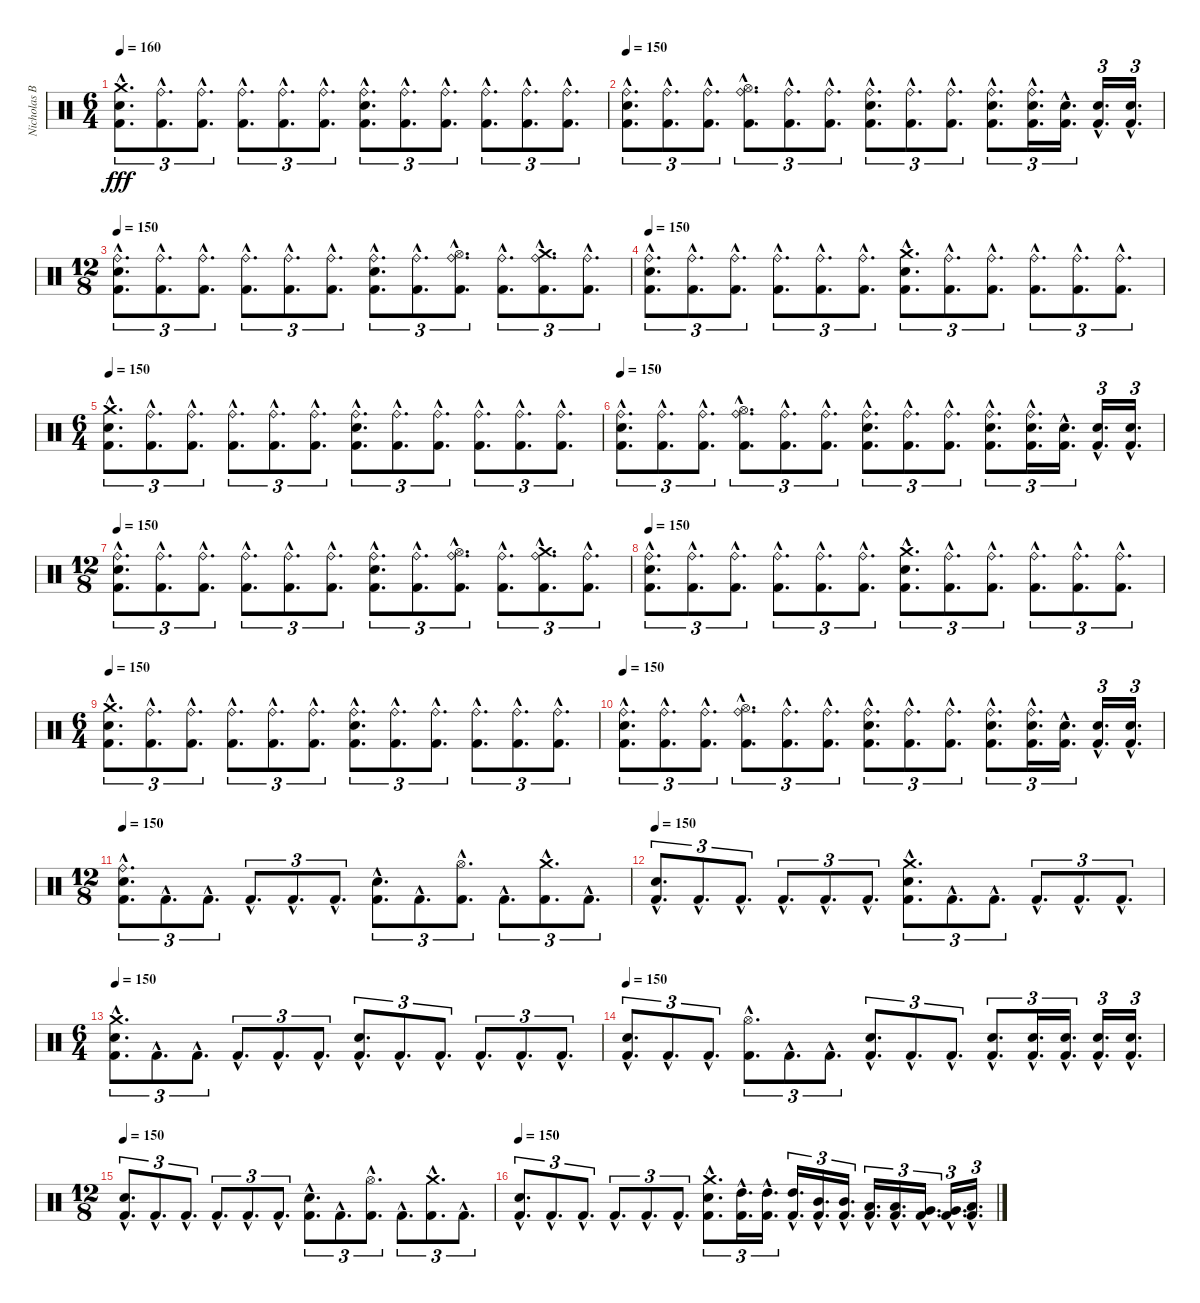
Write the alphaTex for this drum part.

\track ("Nicholas Barker - (Drums And Percussion)" "Nicholas B") {instrument percussion}
\staff {score}
\articulation defaults
\ts (6 4)
\tempo 150
\tempo 160
\clef neutral
\ks c
("Crash medium (hit)"{hac} "Snare (hit) 2"{hac} "Kick (hit) 2"{hac}).8{d tu (3 2) dy fff} ("Ride (bell)"{hac} "Kick (hit) 2"{hac}).8{d tu (3 2)} ("Ride (bell)"{hac} "Kick (hit) 2"{hac}).8{d tu (3 2)} ("Ride (bell)"{hac} "Kick (hit) 2"{hac}).8{d tu (3 2)} ("Ride (bell)"{hac} "Kick (hit) 2"{hac}).8{d tu (3 2)} ("Ride (bell)"{hac} "Kick (hit) 2"{hac}).8{d tu (3 2)} ("Ride (bell)"{hac} "Snare (hit) 2"{hac} "Kick (hit) 2"{hac}).8{d tu (3 2)} ("Ride (bell)"{hac} "Kick (hit) 2"{hac}).8{d tu (3 2)} ("Ride (bell)"{hac} "Kick (hit) 2"{hac}).8{d tu (3 2)} ("Ride (bell)"{hac} "Kick (hit) 2"{hac}).8{d tu (3 2)} ("Ride (bell)"{hac} "Kick (hit) 2"{hac}).8{d tu (3 2)} ("Ride (bell)"{hac} "Kick (hit) 2"{hac}).8{d tu (3 2)} |
\tempo 150
("Ride (bell)"{hac} "Snare (hit) 2"{hac} "Kick (hit) 2"{hac}).8{d tu (3 2)} ("Ride (bell)"{hac} "Kick (hit) 2"{hac}).8{d tu (3 2)} ("Ride (bell)"{hac} "Kick (hit) 2"{hac}).8{d tu (3 2)} ("Ride (bell)"{hac} "Hi-Hat (open)"{hac} "Kick (hit) 2"{hac}).8{d tu (3 2)} ("Ride (bell)"{hac} "Kick (hit) 2"{hac}).8{d tu (3 2)} ("Ride (bell)"{hac} "Kick (hit) 2"{hac}).8{d tu (3 2)} ("Ride (bell)"{hac} "Snare (hit) 2"{hac} "Kick (hit) 2"{hac}).8{d tu (3 2)} ("Ride (bell)"{hac} "Kick (hit) 2"{hac}).8{d tu (3 2)} ("Ride (bell)"{hac} "Kick (hit) 2"{hac}).8{d tu (3 2)} ("Ride (bell)"{hac} "Snare (hit) 2"{hac} "Kick (hit) 2"{hac}).8{d tu (3 2)} ("Ride (bell)"{hac} "Snare (hit) 2"{hac} "Kick (hit) 2"{hac}).16{d tu (3 2)} ("Snare (hit) 2"{hac} "Kick (hit) 2"{hac}).16{d tu (3 2)} ("Snare (hit) 2"{hac} "Kick (hit) 2"{hac}).16{d tu (3 2)} ("Snare (hit) 2"{hac} "Kick (hit) 2"{hac}).16{d tu (3 2)} |
\ts (12 8)
\tempo 150
("Ride (bell)"{hac} "Snare (hit) 2"{hac} "Kick (hit) 2"{hac}).8{d tu (3 2)} ("Ride (bell)"{hac} "Kick (hit) 2"{hac}).8{d tu (3 2)} ("Ride (bell)"{hac} "Kick (hit) 2"{hac}).8{d tu (3 2)} ("Ride (bell)"{hac} "Kick (hit) 2"{hac}).8{d tu (3 2)} ("Ride (bell)"{hac} "Kick (hit) 2"{hac}).8{d tu (3 2)} ("Ride (bell)"{hac} "Kick (hit) 2"{hac}).8{d tu (3 2)} ("Ride (bell)"{hac} "Snare (hit) 2"{hac} "Kick (hit) 2"{hac}).8{d tu (3 2)} ("Ride (bell)"{hac} "Kick (hit) 2"{hac}).8{d tu (3 2)} ("Ride (bell)"{hac} "Hi-Hat (open)"{hac} "Kick (hit) 2"{hac}).8{d tu (3 2)} ("Ride (bell)"{hac} "Kick (hit) 2"{hac}).8{d tu (3 2)} ("Ride (bell)"{hac} "Crash medium (hit)"{hac} "Kick (hit) 2"{hac}).8{d tu (3 2)} ("Ride (bell)"{hac} "Kick (hit) 2"{hac}).8{d tu (3 2)} |
\tempo 150
("Ride (bell)"{hac} "Snare (hit) 2"{hac} "Kick (hit) 2"{hac}).8{d tu (3 2)} ("Ride (bell)"{hac} "Kick (hit) 2"{hac}).8{d tu (3 2)} ("Ride (bell)"{hac} "Kick (hit) 2"{hac}).8{d tu (3 2)} ("Ride (bell)"{hac} "Kick (hit) 2"{hac}).8{d tu (3 2)} ("Ride (bell)"{hac} "Kick (hit) 2"{hac}).8{d tu (3 2)} ("Ride (bell)"{hac} "Kick (hit) 2"{hac}).8{d tu (3 2)} ("Crash medium (hit)"{hac} "Snare (hit) 2"{hac} "Kick (hit) 2"{hac}).8{d tu (3 2)} ("Ride (bell)"{hac} "Kick (hit) 2"{hac}).8{d tu (3 2)} ("Ride (bell)"{hac} "Kick (hit) 2"{hac}).8{d tu (3 2)} ("Ride (bell)"{hac} "Kick (hit) 2"{hac}).8{d tu (3 2)} ("Ride (bell)"{hac} "Kick (hit) 2"{hac}).8{d tu (3 2)} ("Ride (bell)"{hac} "Kick (hit) 2"{hac}).8{d tu (3 2)} |
\ts (6 4)
\tempo 150
("Crash medium (hit)"{hac} "Snare (hit) 2"{hac} "Kick (hit) 2"{hac}).8{d tu (3 2)} ("Ride (bell)"{hac} "Kick (hit) 2"{hac}).8{d tu (3 2)} ("Ride (bell)"{hac} "Kick (hit) 2"{hac}).8{d tu (3 2)} ("Ride (bell)"{hac} "Kick (hit) 2"{hac}).8{d tu (3 2)} ("Ride (bell)"{hac} "Kick (hit) 2"{hac}).8{d tu (3 2)} ("Ride (bell)"{hac} "Kick (hit) 2"{hac}).8{d tu (3 2)} ("Ride (bell)"{hac} "Snare (hit) 2"{hac} "Kick (hit) 2"{hac}).8{d tu (3 2)} ("Ride (bell)"{hac} "Kick (hit) 2"{hac}).8{d tu (3 2)} ("Ride (bell)"{hac} "Kick (hit) 2"{hac}).8{d tu (3 2)} ("Ride (bell)"{hac} "Kick (hit) 2"{hac}).8{d tu (3 2)} ("Ride (bell)"{hac} "Kick (hit) 2"{hac}).8{d tu (3 2)} ("Ride (bell)"{hac} "Kick (hit) 2"{hac}).8{d tu (3 2)} |
\tempo 150
("Ride (bell)"{hac} "Snare (hit) 2"{hac} "Kick (hit) 2"{hac}).8{d tu (3 2)} ("Ride (bell)"{hac} "Kick (hit) 2"{hac}).8{d tu (3 2)} ("Ride (bell)"{hac} "Kick (hit) 2"{hac}).8{d tu (3 2)} ("Ride (bell)"{hac} "Hi-Hat (open)"{hac} "Kick (hit) 2"{hac}).8{d tu (3 2)} ("Ride (bell)"{hac} "Kick (hit) 2"{hac}).8{d tu (3 2)} ("Ride (bell)"{hac} "Kick (hit) 2"{hac}).8{d tu (3 2)} ("Ride (bell)"{hac} "Snare (hit) 2"{hac} "Kick (hit) 2"{hac}).8{d tu (3 2)} ("Ride (bell)"{hac} "Kick (hit) 2"{hac}).8{d tu (3 2)} ("Ride (bell)"{hac} "Kick (hit) 2"{hac}).8{d tu (3 2)} ("Ride (bell)"{hac} "Snare (hit) 2"{hac} "Kick (hit) 2"{hac}).8{d tu (3 2)} ("Ride (bell)"{hac} "Snare (hit) 2"{hac} "Kick (hit) 2"{hac}).16{d tu (3 2)} ("Snare (hit) 2"{hac} "Kick (hit) 2"{hac}).16{d tu (3 2)} ("Snare (hit) 2"{hac} "Kick (hit) 2"{hac}).16{d tu (3 2)} ("Snare (hit) 2"{hac} "Kick (hit) 2"{hac}).16{d tu (3 2)} |
\ts (12 8)
\tempo 150
("Ride (bell)"{hac} "Snare (hit) 2"{hac} "Kick (hit) 2"{hac}).8{d tu (3 2)} ("Ride (bell)"{hac} "Kick (hit) 2"{hac}).8{d tu (3 2)} ("Ride (bell)"{hac} "Kick (hit) 2"{hac}).8{d tu (3 2)} ("Ride (bell)"{hac} "Kick (hit) 2"{hac}).8{d tu (3 2)} ("Ride (bell)"{hac} "Kick (hit) 2"{hac}).8{d tu (3 2)} ("Ride (bell)"{hac} "Kick (hit) 2"{hac}).8{d tu (3 2)} ("Ride (bell)"{hac} "Snare (hit) 2"{hac} "Kick (hit) 2"{hac}).8{d tu (3 2)} ("Ride (bell)"{hac} "Kick (hit) 2"{hac}).8{d tu (3 2)} ("Ride (bell)"{hac} "Hi-Hat (open)"{hac} "Kick (hit) 2"{hac}).8{d tu (3 2)} ("Ride (bell)"{hac} "Kick (hit) 2"{hac}).8{d tu (3 2)} ("Ride (bell)"{hac} "Crash medium (hit)"{hac} "Kick (hit) 2"{hac}).8{d tu (3 2)} ("Ride (bell)"{hac} "Kick (hit) 2"{hac}).8{d tu (3 2)} |
\tempo 150
("Ride (bell)"{hac} "Snare (hit) 2"{hac} "Kick (hit) 2"{hac}).8{d tu (3 2)} ("Ride (bell)"{hac} "Kick (hit) 2"{hac}).8{d tu (3 2)} ("Ride (bell)"{hac} "Kick (hit) 2"{hac}).8{d tu (3 2)} ("Ride (bell)"{hac} "Kick (hit) 2"{hac}).8{d tu (3 2)} ("Ride (bell)"{hac} "Kick (hit) 2"{hac}).8{d tu (3 2)} ("Ride (bell)"{hac} "Kick (hit) 2"{hac}).8{d tu (3 2)} ("Crash medium (hit)"{hac} "Snare (hit) 2"{hac} "Kick (hit) 2"{hac}).8{d tu (3 2)} ("Ride (bell)"{hac} "Kick (hit) 2"{hac}).8{d tu (3 2)} ("Ride (bell)"{hac} "Kick (hit) 2"{hac}).8{d tu (3 2)} ("Ride (bell)"{hac} "Kick (hit) 2"{hac}).8{d tu (3 2)} ("Ride (bell)"{hac} "Kick (hit) 2"{hac}).8{d tu (3 2)} ("Ride (bell)"{hac} "Kick (hit) 2"{hac}).8{d tu (3 2)} |
\ts (6 4)
\tempo 150
("Crash medium (hit)"{hac} "Snare (hit) 2"{hac} "Kick (hit) 2"{hac}).8{d tu (3 2)} ("Ride (bell)"{hac} "Kick (hit) 2"{hac}).8{d tu (3 2)} ("Ride (bell)"{hac} "Kick (hit) 2"{hac}).8{d tu (3 2)} ("Ride (bell)"{hac} "Kick (hit) 2"{hac}).8{d tu (3 2)} ("Ride (bell)"{hac} "Kick (hit) 2"{hac}).8{d tu (3 2)} ("Ride (bell)"{hac} "Kick (hit) 2"{hac}).8{d tu (3 2)} ("Ride (bell)"{hac} "Snare (hit) 2"{hac} "Kick (hit) 2"{hac}).8{d tu (3 2)} ("Ride (bell)"{hac} "Kick (hit) 2"{hac}).8{d tu (3 2)} ("Ride (bell)"{hac} "Kick (hit) 2"{hac}).8{d tu (3 2)} ("Ride (bell)"{hac} "Kick (hit) 2"{hac}).8{d tu (3 2)} ("Ride (bell)"{hac} "Kick (hit) 2"{hac}).8{d tu (3 2)} ("Ride (bell)"{hac} "Kick (hit) 2"{hac}).8{d tu (3 2)} |
\tempo 150
("Ride (bell)"{hac} "Snare (hit) 2"{hac} "Kick (hit) 2"{hac}).8{d tu (3 2)} ("Ride (bell)"{hac} "Kick (hit) 2"{hac}).8{d tu (3 2)} ("Ride (bell)"{hac} "Kick (hit) 2"{hac}).8{d tu (3 2)} ("Ride (bell)"{hac} "Hi-Hat (open)"{hac} "Kick (hit) 2"{hac}).8{d tu (3 2)} ("Ride (bell)"{hac} "Kick (hit) 2"{hac}).8{d tu (3 2)} ("Ride (bell)"{hac} "Kick (hit) 2"{hac}).8{d tu (3 2)} ("Ride (bell)"{hac} "Snare (hit) 2"{hac} "Kick (hit) 2"{hac}).8{d tu (3 2)} ("Ride (bell)"{hac} "Kick (hit) 2"{hac}).8{d tu (3 2)} ("Ride (bell)"{hac} "Kick (hit) 2"{hac}).8{d tu (3 2)} ("Ride (bell)"{hac} "Snare (hit) 2"{hac} "Kick (hit) 2"{hac}).8{d tu (3 2)} ("Ride (bell)"{hac} "Snare (hit) 2"{hac} "Kick (hit) 2"{hac}).16{d tu (3 2)} ("Snare (hit) 2"{hac} "Kick (hit) 2"{hac}).16{d tu (3 2)} ("Snare (hit) 2"{hac} "Kick (hit) 2"{hac}).16{d tu (3 2)} ("Snare (hit) 2"{hac} "Kick (hit) 2"{hac}).16{d tu (3 2)} |
\ts (12 8)
\tempo 150
("Ride (bell)"{hac} "Snare (hit) 2"{hac} "Kick (hit) 2"{hac}).8{d tu (3 2)} "Kick (hit) 2"{hac}.8{d tu (3 2)} "Kick (hit) 2"{hac}.8{d tu (3 2)} "Kick (hit) 2"{hac}.8{d tu (3 2)} "Kick (hit) 2"{hac}.8{d tu (3 2)} "Kick (hit) 2"{hac}.8{d tu (3 2)} ("Snare (hit) 2"{hac} "Kick (hit) 2"{hac}).8{d tu (3 2)} "Kick (hit) 2"{hac}.8{d tu (3 2)} ("Hi-Hat (open)"{hac} "Kick (hit) 2"{hac}).8{d tu (3 2)} "Kick (hit) 2"{hac}.8{d tu (3 2)} ("Crash medium (hit)"{hac} "Kick (hit) 2"{hac}).8{d tu (3 2)} "Kick (hit) 2"{hac}.8{d tu (3 2)} |
\tempo 150
("Snare (hit) 2"{hac} "Kick (hit) 2"{hac}).8{d tu (3 2)} "Kick (hit) 2"{hac}.8{d tu (3 2)} "Kick (hit) 2"{hac}.8{d tu (3 2)} "Kick (hit) 2"{hac}.8{d tu (3 2)} "Kick (hit) 2"{hac}.8{d tu (3 2)} "Kick (hit) 2"{hac}.8{d tu (3 2)} ("Crash medium (hit)"{hac} "Snare (hit) 2"{hac} "Kick (hit) 2"{hac}).8{d tu (3 2)} "Kick (hit) 2"{hac}.8{d tu (3 2)} "Kick (hit) 2"{hac}.8{d tu (3 2)} "Kick (hit) 2"{hac}.8{d tu (3 2)} "Kick (hit) 2"{hac}.8{d tu (3 2)} "Kick (hit) 2"{hac}.8{d tu (3 2)} |
\ts (6 4)
\tempo 150
("Crash medium (hit)"{hac} "Snare (hit) 2"{hac} "Kick (hit) 2"{hac}).8{d tu (3 2)} "Kick (hit) 2"{hac}.8{d tu (3 2)} "Kick (hit) 2"{hac}.8{d tu (3 2)} "Kick (hit) 2"{hac}.8{d tu (3 2)} "Kick (hit) 2"{hac}.8{d tu (3 2)} "Kick (hit) 2"{hac}.8{d tu (3 2)} ("Snare (hit) 2"{hac} "Kick (hit) 2"{hac}).8{d tu (3 2)} "Kick (hit) 2"{hac}.8{d tu (3 2)} "Kick (hit) 2"{hac}.8{d tu (3 2)} "Kick (hit) 2"{hac}.8{d tu (3 2)} "Kick (hit) 2"{hac}.8{d tu (3 2)} "Kick (hit) 2"{hac}.8{d tu (3 2)} |
\tempo 150
("Snare (hit) 2"{hac} "Kick (hit) 2"{hac}).8{d tu (3 2)} "Kick (hit) 2"{hac}.8{d tu (3 2)} "Kick (hit) 2"{hac}.8{d tu (3 2)} ("Hi-Hat (open)"{hac} "Kick (hit) 2"{hac}).8{d tu (3 2)} "Kick (hit) 2"{hac}.8{d tu (3 2)} "Kick (hit) 2"{hac}.8{d tu (3 2)} ("Snare (hit) 2"{hac} "Kick (hit) 2"{hac}).8{d tu (3 2)} "Kick (hit) 2"{hac}.8{d tu (3 2)} "Kick (hit) 2"{hac}.8{d tu (3 2)} ("Snare (hit) 2"{hac} "Kick (hit) 2"{hac}).8{d tu (3 2)} ("Snare (hit) 2"{hac} "Kick (hit) 2"{hac}).16{d tu (3 2)} ("Snare (hit) 2"{hac} "Kick (hit) 2"{hac}).16{d tu (3 2)} ("Snare (hit) 2"{hac} "Kick (hit) 2"{hac}).16{d tu (3 2)} ("Snare (hit) 2"{hac} "Kick (hit) 2"{hac}).16{d tu (3 2)} |
\ts (12 8)
\tempo 150
("Snare (hit) 2"{hac} "Kick (hit) 2"{hac}).8{d tu (3 2)} "Kick (hit) 2"{hac}.8{d tu (3 2)} "Kick (hit) 2"{hac}.8{d tu (3 2)} "Kick (hit) 2"{hac}.8{d tu (3 2)} "Kick (hit) 2"{hac}.8{d tu (3 2)} "Kick (hit) 2"{hac}.8{d tu (3 2)} ("Snare (hit) 2"{hac} "Kick (hit) 2"{hac}).8{d tu (3 2)} "Kick (hit) 2"{hac}.8{d tu (3 2)} ("Hi-Hat (open)"{hac} "Kick (hit) 2"{hac}).8{d tu (3 2)} "Kick (hit) 2"{hac}.8{d tu (3 2)} ("Crash medium (hit)"{hac} "Kick (hit) 2"{hac}).8{d tu (3 2)} "Kick (hit) 2"{hac}.8{d tu (3 2)} |
\tempo 150
("Snare (hit) 2"{hac} "Kick (hit) 2"{hac}).8{d tu (3 2)} "Kick (hit) 2"{hac}.8{d tu (3 2)} "Kick (hit) 2"{hac}.8{d tu (3 2)} "Kick (hit) 2"{hac}.8{d tu (3 2)} "Kick (hit) 2"{hac}.8{d tu (3 2)} "Kick (hit) 2"{hac}.8{d tu (3 2)} ("Crash medium (hit)"{hac} "Snare (hit) 2"{hac} "Kick (hit) 2"{hac}).8{d tu (3 2)} ("High Tom (hit)"{hac} "Kick (hit) 2"{hac}).16{d tu (3 2)} ("High Tom (hit)"{hac} "Kick (hit) 2"{hac}).16{d tu (3 2)} ("High Tom (hit)"{hac} "Kick (hit) 2"{hac}).16{d tu (3 2)} ("Mid Tom (hit)"{hac} "Kick (hit) 2"{hac}).16{d tu (3 2)} ("Mid Tom (hit)"{hac} "Kick (hit) 2"{hac}).16{d tu (3 2)} ("Low Tom (hit)"{hac} "Kick (hit) 2"{hac}).16{d tu (3 2)} ("Low Tom (hit)"{hac} "Kick (hit) 2"{hac}).16{d tu (3 2)} ("Very Low Tom (hit)"{hac} "Kick (hit) 2"{hac}).16{d tu (3 2)} ("Very Low Tom (hit)"{hac} "Kick (hit) 2"{hac}).16{d tu (3 2)} ("Low Floor Tom (hit)"{hac} "Kick (hit) 2"{hac}).16{d tu (3 2)}
